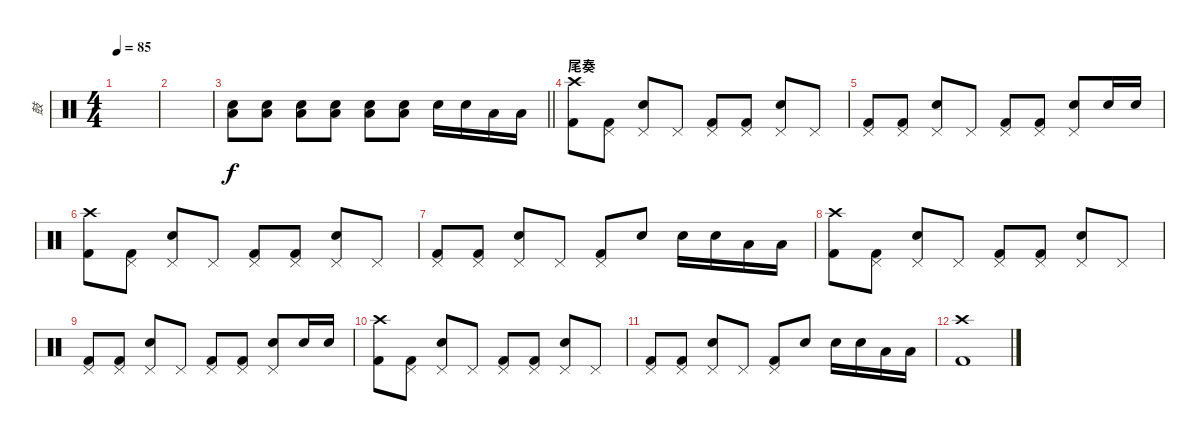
\track ("鼓" "鼓") {instrument percussion}
\staff {score}
\articulation defaults
\ts (4 4)
\tempo 85
\clef neutral
\ks c
|
|
\barLineRight lightlight
("Electric Snare (hit)" "Low Floor Tom (hit)").8 ("Electric Snare (hit)" "Low Floor Tom (hit)").8 ("Electric Snare (hit)" "Low Floor Tom (hit)").8 ("Electric Snare (hit)" "Low Floor Tom (hit)").8 ("Electric Snare (hit)" "Low Floor Tom (hit)").8 ("Electric Snare (hit)" "Low Floor Tom (hit)").8 "Electric Snare (hit)".16 "Electric Snare (hit)".16 "Low Floor Tom (hit)".16 "Low Floor Tom (hit)".16 |
\section ("" "尾奏")
("Crash high (hit)" "Kick (hit) 2").8 ("Pedal Hi-Hat (hit)" "Kick (hit) 2").8 ("Pedal Hi-Hat (hit)" "Electric Snare (hit)").8 "Pedal Hi-Hat (hit)".8 ("Pedal Hi-Hat (hit)" "Kick (hit) 2").8 ("Pedal Hi-Hat (hit)" "Kick (hit) 2").8 ("Pedal Hi-Hat (hit)" "Electric Snare (hit)").8 "Pedal Hi-Hat (hit)".8 |
("Pedal Hi-Hat (hit)" "Kick (hit) 2").8 ("Pedal Hi-Hat (hit)" "Kick (hit) 2").8 ("Pedal Hi-Hat (hit)" "Electric Snare (hit)").8 "Pedal Hi-Hat (hit)".8 ("Pedal Hi-Hat (hit)" "Kick (hit) 2").8 ("Pedal Hi-Hat (hit)" "Kick (hit) 2").8 ("Pedal Hi-Hat (hit)" "Electric Snare (hit)").8 "Electric Snare (hit)".16 "Electric Snare (hit)".16 |
("Crash high (hit)" "Kick (hit) 2").8 ("Pedal Hi-Hat (hit)" "Kick (hit) 2").8 ("Pedal Hi-Hat (hit)" "Electric Snare (hit)").8 "Pedal Hi-Hat (hit)".8 ("Pedal Hi-Hat (hit)" "Kick (hit) 2").8 ("Pedal Hi-Hat (hit)" "Kick (hit) 2").8 ("Pedal Hi-Hat (hit)" "Electric Snare (hit)").8 "Pedal Hi-Hat (hit)".8 |
("Pedal Hi-Hat (hit)" "Kick (hit) 2").8 ("Pedal Hi-Hat (hit)" "Kick (hit) 2").8 ("Pedal Hi-Hat (hit)" "Electric Snare (hit)").8 "Pedal Hi-Hat (hit)".8 ("Pedal Hi-Hat (hit)" "Kick (hit) 2").8 "Electric Snare (hit)".8 "Electric Snare (hit)".16 "Electric Snare (hit)".16 "Low Floor Tom (hit)".16 "Low Floor Tom (hit)".16 |
("Crash high (hit)" "Kick (hit) 2").8 ("Pedal Hi-Hat (hit)" "Kick (hit) 2").8 ("Pedal Hi-Hat (hit)" "Electric Snare (hit)").8 "Pedal Hi-Hat (hit)".8 ("Pedal Hi-Hat (hit)" "Kick (hit) 2").8 ("Pedal Hi-Hat (hit)" "Kick (hit) 2").8 ("Pedal Hi-Hat (hit)" "Electric Snare (hit)").8 "Pedal Hi-Hat (hit)".8 |
("Pedal Hi-Hat (hit)" "Kick (hit) 2").8 ("Pedal Hi-Hat (hit)" "Kick (hit) 2").8 ("Pedal Hi-Hat (hit)" "Electric Snare (hit)").8 "Pedal Hi-Hat (hit)".8 ("Pedal Hi-Hat (hit)" "Kick (hit) 2").8 ("Pedal Hi-Hat (hit)" "Kick (hit) 2").8 ("Pedal Hi-Hat (hit)" "Electric Snare (hit)").8 "Electric Snare (hit)".16 "Electric Snare (hit)".16 |
("Crash high (hit)" "Kick (hit) 2").8 ("Pedal Hi-Hat (hit)" "Kick (hit) 2").8 ("Pedal Hi-Hat (hit)" "Electric Snare (hit)").8 "Pedal Hi-Hat (hit)".8 ("Pedal Hi-Hat (hit)" "Kick (hit) 2").8 ("Pedal Hi-Hat (hit)" "Kick (hit) 2").8 ("Pedal Hi-Hat (hit)" "Electric Snare (hit)").8 "Pedal Hi-Hat (hit)".8 |
("Pedal Hi-Hat (hit)" "Kick (hit) 2").8 ("Pedal Hi-Hat (hit)" "Kick (hit) 2").8 ("Pedal Hi-Hat (hit)" "Electric Snare (hit)").8 "Pedal Hi-Hat (hit)".8 ("Pedal Hi-Hat (hit)" "Kick (hit) 2").8 "Electric Snare (hit)".8 "Electric Snare (hit)".16 "Electric Snare (hit)".16 "Low Floor Tom (hit)".16 "Low Floor Tom (hit)".16 |
("Crash high (hit)" "Kick (hit) 2").1
